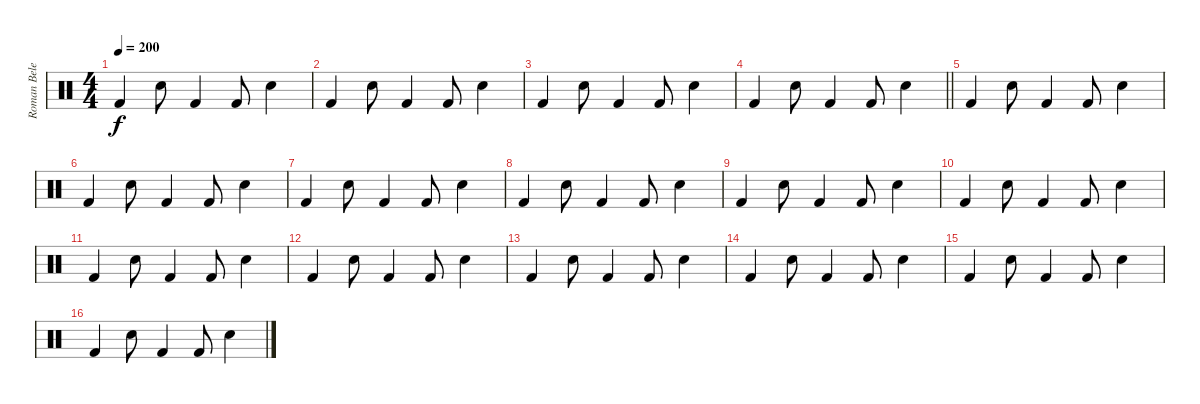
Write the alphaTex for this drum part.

\track ("Roman Belenkiy" "Roman Bele") {instrument percussion}
\staff {score}
\articulation defaults
\ts (4 4)
\tempo 200
\clef neutral
\ks c "Kick (hit) 2".4{dy f} "Snare (hit) 2".8 "Kick (hit) 2".4 "Kick (hit) 2".8 "Snare (hit) 2".4
|
"Kick (hit) 2".4 "Snare (hit) 2".8 "Kick (hit) 2".4 "Kick (hit) 2".8 "Snare (hit) 2".4 |
"Kick (hit) 2".4 "Snare (hit) 2".8 "Kick (hit) 2".4 "Kick (hit) 2".8 "Snare (hit) 2".4 |
\barLineRight lightlight "Kick (hit) 2".4 "Snare (hit) 2".8 "Kick (hit) 2".4 "Kick (hit) 2".8 "Snare (hit) 2".4
|
\section ("" "")
"Kick (hit) 2".4 "Snare (hit) 2".8 "Kick (hit) 2".4 "Kick (hit) 2".8 "Snare (hit) 2".4 |
"Kick (hit) 2".4 "Snare (hit) 2".8 "Kick (hit) 2".4 "Kick (hit) 2".8 "Snare (hit) 2".4 |
"Kick (hit) 2".4 "Snare (hit) 2".8 "Kick (hit) 2".4 "Kick (hit) 2".8 "Snare (hit) 2".4 |
"Kick (hit) 2".4 "Snare (hit) 2".8 "Kick (hit) 2".4 "Kick (hit) 2".8 "Snare (hit) 2".4 |
"Kick (hit) 2".4 "Snare (hit) 2".8 "Kick (hit) 2".4 "Kick (hit) 2".8 "Snare (hit) 2".4 |
"Kick (hit) 2".4 "Snare (hit) 2".8 "Kick (hit) 2".4 "Kick (hit) 2".8 "Snare (hit) 2".4 |
"Kick (hit) 2".4 "Snare (hit) 2".8 "Kick (hit) 2".4 "Kick (hit) 2".8 "Snare (hit) 2".4 |
"Kick (hit) 2".4 "Snare (hit) 2".8 "Kick (hit) 2".4 "Kick (hit) 2".8 "Snare (hit) 2".4 |
"Kick (hit) 2".4 "Snare (hit) 2".8 "Kick (hit) 2".4 "Kick (hit) 2".8 "Snare (hit) 2".4 |
"Kick (hit) 2".4 "Snare (hit) 2".8 "Kick (hit) 2".4 "Kick (hit) 2".8 "Snare (hit) 2".4 |
"Kick (hit) 2".4 "Snare (hit) 2".8 "Kick (hit) 2".4 "Kick (hit) 2".8 "Snare (hit) 2".4 |
"Kick (hit) 2".4 "Snare (hit) 2".8 "Kick (hit) 2".4 "Kick (hit) 2".8 "Snare (hit) 2".4
